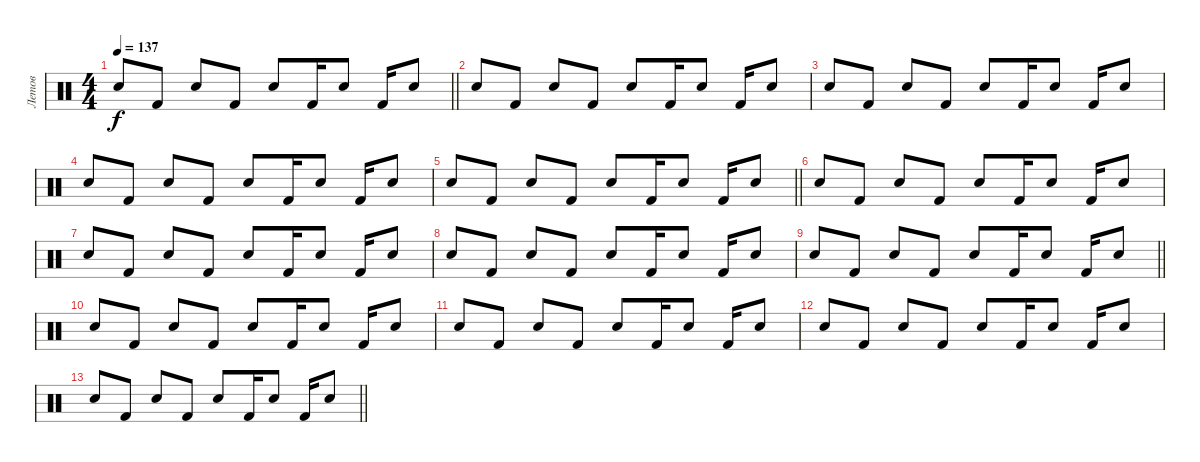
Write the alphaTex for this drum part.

\track ("Летов" "Летов") {instrument percussion}
\staff {score}
\articulation defaults
\ts (4 4)
\tempo 137
\clef neutral
\barLineRight lightlight
\ks c "Electric Snare (hit)".8{dy f} "Kick (hit) 2".8 "Electric Snare (hit)".8 "Kick (hit) 2".8 "Electric Snare (hit)".8 "Kick (hit) 2".16 "Electric Snare (hit)".8 "Kick (hit) 2".16 "Electric Snare (hit)".8
|
"Electric Snare (hit)".8 "Kick (hit) 2".8 "Electric Snare (hit)".8 "Kick (hit) 2".8 "Electric Snare (hit)".8 "Kick (hit) 2".16 "Electric Snare (hit)".8 "Kick (hit) 2".16 "Electric Snare (hit)".8 |
"Electric Snare (hit)".8 "Kick (hit) 2".8 "Electric Snare (hit)".8 "Kick (hit) 2".8 "Electric Snare (hit)".8 "Kick (hit) 2".16 "Electric Snare (hit)".8 "Kick (hit) 2".16 "Electric Snare (hit)".8 |
"Electric Snare (hit)".8 "Kick (hit) 2".8 "Electric Snare (hit)".8 "Kick (hit) 2".8 "Electric Snare (hit)".8 "Kick (hit) 2".16 "Electric Snare (hit)".8 "Kick (hit) 2".16 "Electric Snare (hit)".8 |
\barLineRight lightlight "Electric Snare (hit)".8 "Kick (hit) 2".8 "Electric Snare (hit)".8 "Kick (hit) 2".8 "Electric Snare (hit)".8 "Kick (hit) 2".16 "Electric Snare (hit)".8 "Kick (hit) 2".16 "Electric Snare (hit)".8
|
"Electric Snare (hit)".8 "Kick (hit) 2".8 "Electric Snare (hit)".8 "Kick (hit) 2".8 "Electric Snare (hit)".8 "Kick (hit) 2".16 "Electric Snare (hit)".8 "Kick (hit) 2".16 "Electric Snare (hit)".8 |
"Electric Snare (hit)".8 "Kick (hit) 2".8 "Electric Snare (hit)".8 "Kick (hit) 2".8 "Electric Snare (hit)".8 "Kick (hit) 2".16 "Electric Snare (hit)".8 "Kick (hit) 2".16 "Electric Snare (hit)".8 |
"Electric Snare (hit)".8 "Kick (hit) 2".8 "Electric Snare (hit)".8 "Kick (hit) 2".8 "Electric Snare (hit)".8 "Kick (hit) 2".16 "Electric Snare (hit)".8 "Kick (hit) 2".16 "Electric Snare (hit)".8 |
\barLineRight lightlight "Electric Snare (hit)".8 "Kick (hit) 2".8 "Electric Snare (hit)".8 "Kick (hit) 2".8 "Electric Snare (hit)".8 "Kick (hit) 2".16 "Electric Snare (hit)".8 "Kick (hit) 2".16 "Electric Snare (hit)".8
|
"Electric Snare (hit)".8 "Kick (hit) 2".8 "Electric Snare (hit)".8 "Kick (hit) 2".8 "Electric Snare (hit)".8 "Kick (hit) 2".16 "Electric Snare (hit)".8 "Kick (hit) 2".16 "Electric Snare (hit)".8 |
"Electric Snare (hit)".8 "Kick (hit) 2".8 "Electric Snare (hit)".8 "Kick (hit) 2".8 "Electric Snare (hit)".8 "Kick (hit) 2".16 "Electric Snare (hit)".8 "Kick (hit) 2".16 "Electric Snare (hit)".8 |
"Electric Snare (hit)".8 "Kick (hit) 2".8 "Electric Snare (hit)".8 "Kick (hit) 2".8 "Electric Snare (hit)".8 "Kick (hit) 2".16 "Electric Snare (hit)".8 "Kick (hit) 2".16 "Electric Snare (hit)".8 |
\barLineRight lightlight "Electric Snare (hit)".8 "Kick (hit) 2".8 "Electric Snare (hit)".8 "Kick (hit) 2".8 "Electric Snare (hit)".8 "Kick (hit) 2".16 "Electric Snare (hit)".8 "Kick (hit) 2".16 "Electric Snare (hit)".8
